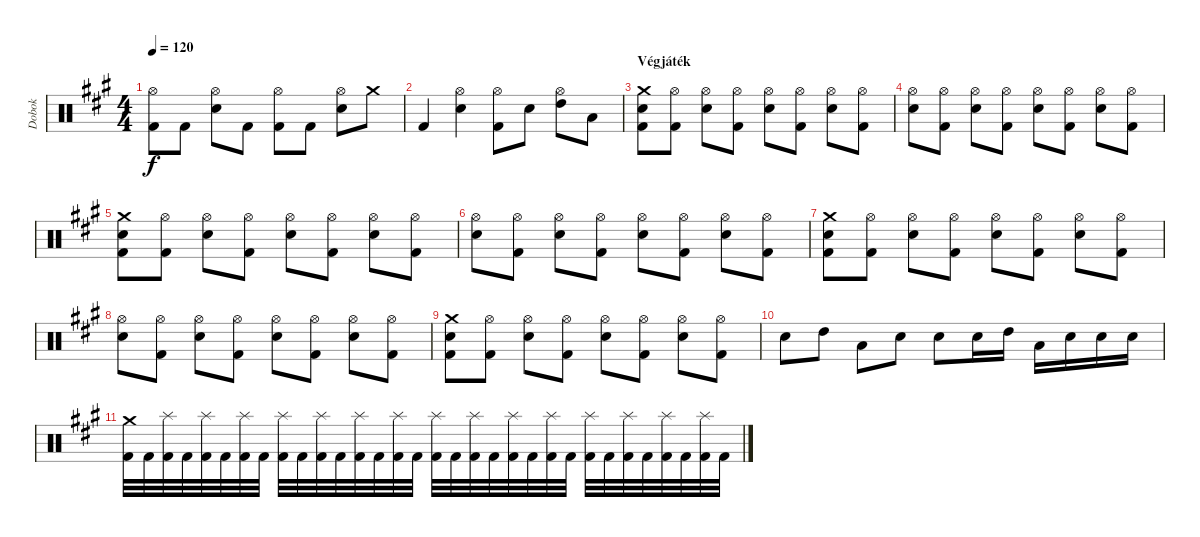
\track ("Dobok" "Dobok") {instrument percussion}
\staff {score}
\articulation defaults
\ts (4 4)
\tempo 120
\clef neutral
\ks a
("Hi-Hat (open)" "Kick (hit) 2").8{dy f} "Kick (hit) 2".8 ("Hi-Hat (open)" "Snare (hit) 2").8 "Kick (hit) 2".8 ("Hi-Hat (open)" "Kick (hit) 2").8 "Kick (hit) 2".8 ("Hi-Hat (open)" "Snare (hit) 2").8 "Crash medium (hit)".8 |
"Kick (hit) 2".4 ("Hi-Hat (open)" "Snare (hit) 2").4 ("Hi-Hat (open)" "Kick (hit) 2").8 "Snare (hit) 2".8 ("Hi-Hat (open)" "High Tom (hit)").8 "Low Tom (hit)".8 |
\section ("" "Végjáték")
("Crash medium (hit)" "Snare (hit) 2" "Kick (hit) 2").8 ("Hi-Hat (open)" "Kick (hit) 2").8 ("Hi-Hat (open)" "Snare (hit) 2").8 ("Hi-Hat (open)" "Kick (hit) 2").8 ("Hi-Hat (open)" "Snare (hit) 2").8 ("Hi-Hat (open)" "Kick (hit) 2").8 ("Hi-Hat (open)" "Snare (hit) 2").8 ("Hi-Hat (open)" "Kick (hit) 2").8 |
("Hi-Hat (open)" "Snare (hit) 2").8 ("Hi-Hat (open)" "Kick (hit) 2").8 ("Hi-Hat (open)" "Snare (hit) 2").8 ("Hi-Hat (open)" "Kick (hit) 2").8 ("Hi-Hat (open)" "Snare (hit) 2").8 ("Hi-Hat (open)" "Kick (hit) 2").8 ("Hi-Hat (open)" "Snare (hit) 2").8 ("Hi-Hat (open)" "Kick (hit) 2").8 |
("Crash medium (hit)" "Snare (hit) 2" "Kick (hit) 2").8 ("Hi-Hat (open)" "Kick (hit) 2").8 ("Hi-Hat (open)" "Snare (hit) 2").8 ("Hi-Hat (open)" "Kick (hit) 2").8 ("Hi-Hat (open)" "Snare (hit) 2").8 ("Hi-Hat (open)" "Kick (hit) 2").8 ("Hi-Hat (open)" "Snare (hit) 2").8 ("Hi-Hat (open)" "Kick (hit) 2").8 |
("Hi-Hat (open)" "Snare (hit) 2").8 ("Hi-Hat (open)" "Kick (hit) 2").8 ("Hi-Hat (open)" "Snare (hit) 2").8 ("Hi-Hat (open)" "Kick (hit) 2").8 ("Hi-Hat (open)" "Snare (hit) 2").8 ("Hi-Hat (open)" "Kick (hit) 2").8 ("Hi-Hat (open)" "Snare (hit) 2").8 ("Hi-Hat (open)" "Kick (hit) 2").8 |
("Crash medium (hit)" "Snare (hit) 2" "Kick (hit) 2").8 ("Hi-Hat (open)" "Kick (hit) 2").8 ("Hi-Hat (open)" "Snare (hit) 2").8 ("Hi-Hat (open)" "Kick (hit) 2").8 ("Hi-Hat (open)" "Snare (hit) 2").8 ("Hi-Hat (open)" "Kick (hit) 2").8 ("Hi-Hat (open)" "Snare (hit) 2").8 ("Hi-Hat (open)" "Kick (hit) 2").8 |
("Hi-Hat (open)" "Snare (hit) 2").8 ("Hi-Hat (open)" "Kick (hit) 2").8 ("Hi-Hat (open)" "Snare (hit) 2").8 ("Hi-Hat (open)" "Kick (hit) 2").8 ("Hi-Hat (open)" "Snare (hit) 2").8 ("Hi-Hat (open)" "Kick (hit) 2").8 ("Hi-Hat (open)" "Snare (hit) 2").8 ("Hi-Hat (open)" "Kick (hit) 2").8 |
("Crash medium (hit)" "Snare (hit) 2" "Kick (hit) 2").8 ("Hi-Hat (open)" "Kick (hit) 2").8 ("Hi-Hat (open)" "Snare (hit) 2").8 ("Hi-Hat (open)" "Kick (hit) 2").8 ("Hi-Hat (open)" "Snare (hit) 2").8 ("Hi-Hat (open)" "Kick (hit) 2").8 ("Hi-Hat (open)" "Snare (hit) 2").8 ("Hi-Hat (open)" "Kick (hit) 2").8 |
"Snare (hit) 2".8 "High Tom (hit)".8 "Low Tom (hit)".8 "Snare (hit) 2".8 "Snare (hit) 2".8 "Snare (hit) 2".16 "High Tom (hit)".16 "Low Tom (hit)".16 "Snare (hit) 2".16 "Snare (hit) 2".16 "Snare (hit) 2".16 |
("Crash medium (hit)" "Kick (hit) 2").32{volume 0} "Kick (hit) 2".32 ("Splash (hit)" "Kick (hit) 2").32 "Kick (hit) 2".32 ("Splash (hit)" "Kick (hit) 2").32 "Kick (hit) 2".32 ("Splash (hit)" "Kick (hit) 2").32 "Kick (hit) 2".32 ("Splash (hit)" "Kick (hit) 2").32 "Kick (hit) 2".32 ("Splash (hit)" "Kick (hit) 2").32 "Kick (hit) 2".32 ("Splash (hit)" "Kick (hit) 2").32 "Kick (hit) 2".32 ("Splash (hit)" "Kick (hit) 2").32 "Kick (hit) 2".32 ("Splash (hit)" "Kick (hit) 2").32 "Kick (hit) 2".32 ("Splash (hit)" "Kick (hit) 2").32 "Kick (hit) 2".32 ("Splash (hit)" "Kick (hit) 2").32 "Kick (hit) 2".32 ("Splash (hit)" "Kick (hit) 2").32 "Kick (hit) 2".32 ("Splash (hit)" "Kick (hit) 2").32 "Kick (hit) 2".32 ("Splash (hit)" "Kick (hit) 2").32 "Kick (hit) 2".32 ("Splash (hit)" "Kick (hit) 2").32 "Kick (hit) 2".32 ("Splash (hit)" "Kick (hit) 2").32 "Kick (hit) 2".32
